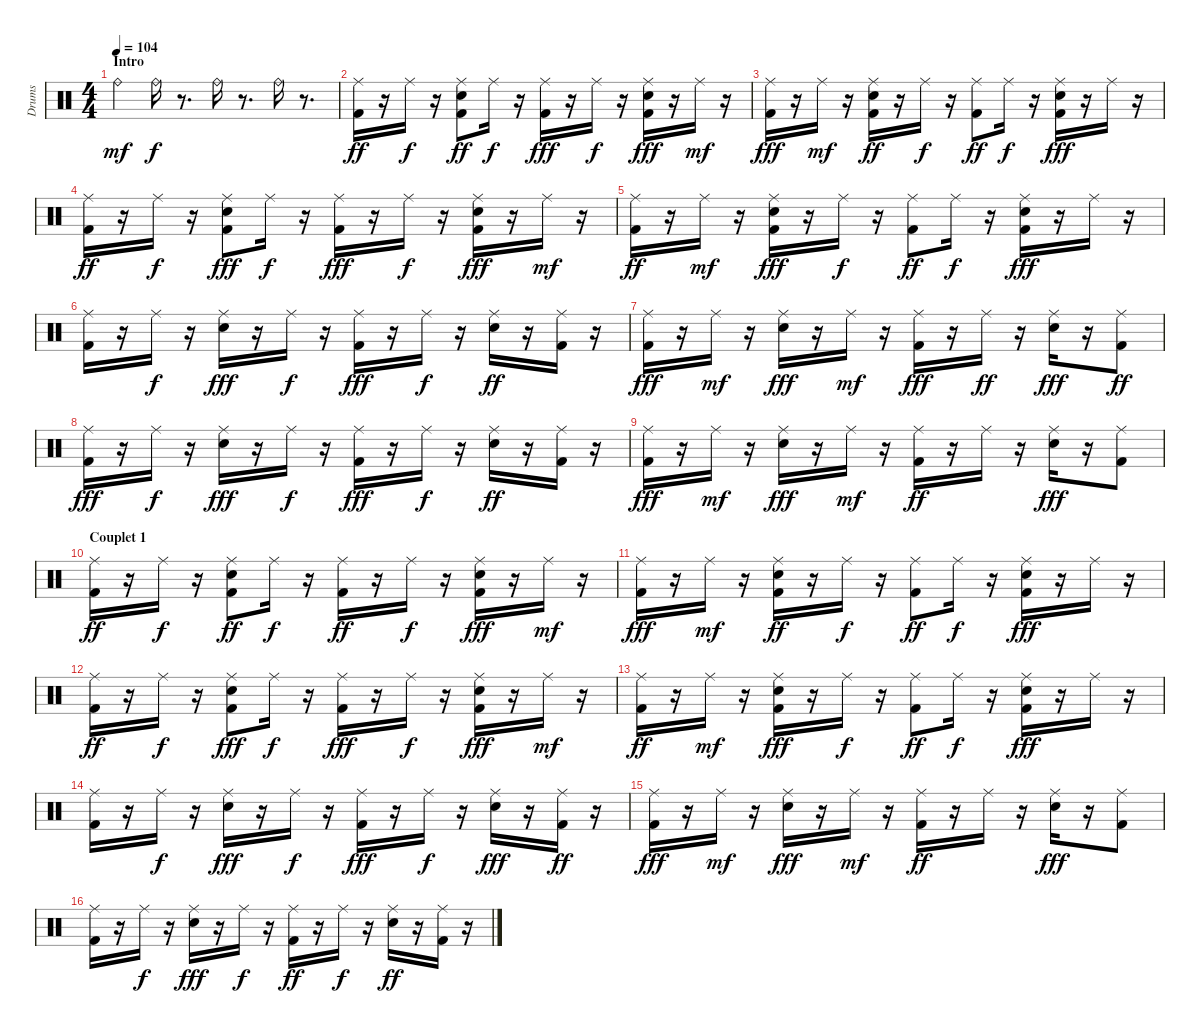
\track ("Drums" "Drums") {instrument percussion}
\staff {score}
\articulation defaults
\ts (4 4)
\section ("" "Intro")
\tempo 104
\clef neutral
\ks c "Ride (bell)".4{dy mf} "Ride (bell)".16{dy f}
r.8{d} "Ride (bell)".16 r.8{d} "Ride (bell)".16 r.8{d} |
("Kick (hit) 2" "Ride (middle)").16{dy ff} r.16 "Ride (middle)".16{dy f} r.16 ("Snare (hit) 2" "Kick (hit) 2" "Ride (middle)").8{dy ff} "Ride (middle)".16{dy f} r.16 ("Ride (middle)" "Kick (hit) 2").16{dy fff} r.16 "Ride (middle)".16{dy f} r.16 ("Snare (hit) 2" "Ride (middle)" "Kick (hit) 2").16{dy fff} r.16 "Ride (middle)".16{dy mf} r.16 |
("Ride (middle)" "Kick (hit) 2").16{dy fff} r.16 "Ride (middle)".16{dy mf} r.16 ("Kick (hit) 2" "Snare (hit) 2" "Ride (middle)").16{dy ff} r.16 "Ride (middle)".16{dy f} r.16 ("Kick (hit) 2" "Ride (middle)").8{dy ff} "Ride (middle)".16{dy f} r.16 ("Kick (hit) 2" "Snare (hit) 2" "Ride (middle)").16{dy fff} r.16 "Ride (middle)".16 r.16 |
("Kick (hit) 2" "Ride (middle)").16{dy ff} r.16 "Ride (middle)".16{dy f} r.16 ("Ride (middle)" "Kick (hit) 2" "Snare (hit) 2").8{dy fff} "Ride (middle)".16{dy f} r.16 ("Ride (middle)" "Kick (hit) 2").16{dy fff} r.16 "Ride (middle)".16{dy f} r.16 ("Snare (hit) 2" "Kick (hit) 2" "Ride (middle)").16{dy fff} r.16 "Ride (middle)".16{dy mf} r.16 |
("Kick (hit) 2" "Ride (middle)").16{dy ff} r.16 "Ride (middle)".16{dy mf} r.16 ("Snare (hit) 2" "Ride (middle)" "Kick (hit) 2").16{dy fff} r.16 "Ride (middle)".16{dy f} r.16 ("Kick (hit) 2" "Ride (middle)").8{dy ff} "Ride (middle)".16{dy f} r.16 ("Snare (hit) 2" "Ride (middle)" "Kick (hit) 2").16{dy fff} r.16 "Ride (middle)".16 r.16 |
("Kick (hit) 2" "Ride (middle)").16 r.16 "Ride (middle)".16{dy f} r.16 ("Snare (hit) 2" "Ride (middle)").16{dy fff} r.16 "Ride (middle)".16{dy f} r.16 ("Ride (middle)" "Kick (hit) 2").16{dy fff} r.16 "Ride (middle)".16{dy f} r.16 ("Snare (hit) 2" "Ride (middle)").16{dy ff} r.16 ("Ride (middle)" "Kick (hit) 2").16 r.16 |
("Ride (middle)" "Kick (hit) 2").16{dy fff} r.16 "Ride (middle)".16{dy mf} r.16 ("Snare (hit) 2" "Ride (middle)").16{dy fff} r.16 "Ride (middle)".16{dy mf} r.16 ("Ride (middle)" "Kick (hit) 2").16{dy fff} r.16 "Ride (middle)".16{dy ff} r.16 ("Ride (middle)" "Snare (hit) 2").16{dy fff} r.16 ("Ride (middle)" "Kick (hit) 2").8{dy ff} |
("Kick (hit) 2" "Ride (middle)").16{dy fff} r.16 "Ride (middle)".16{dy f} r.16 ("Ride (middle)" "Snare (hit) 2").16{dy fff} r.16 "Ride (middle)".16{dy f} r.16 ("Ride (middle)" "Kick (hit) 2").16{dy fff} r.16 "Ride (middle)".16{dy f} r.16 ("Snare (hit) 2" "Ride (middle)").16{dy ff} r.16 ("Kick (hit) 2" "Ride (middle)").16 r.16 |
("Kick (hit) 2" "Ride (middle)").16{dy fff} r.16 "Ride (middle)".16{dy mf} r.16 ("Ride (middle)" "Snare (hit) 2").16{dy fff} r.16 "Ride (middle)".16{dy mf} r.16 ("Kick (hit) 2" "Ride (middle)").16{dy ff} r.16 "Ride (middle)".16 r.16 ("Ride (middle)" "Snare (hit) 2").16{dy fff} r.16 ("Kick (hit) 2" "Ride (middle)").8 |
\section ("" "Couplet 1")
("Kick (hit) 2" "Ride (middle)").16{dy ff} r.16 "Ride (middle)".16{dy f} r.16 ("Kick (hit) 2" "Snare (hit) 2" "Ride (middle)").8{dy ff} "Ride (middle)".16{dy f} r.16 ("Kick (hit) 2" "Ride (middle)").16{dy ff} r.16 "Ride (middle)".16{dy f} r.16 ("Snare (hit) 2" "Ride (middle)" "Kick (hit) 2").16{dy fff} r.16 "Ride (middle)".16{dy mf} r.16 |
("Ride (middle)" "Kick (hit) 2").16{dy fff} r.16 "Ride (middle)".16{dy mf} r.16 ("Snare (hit) 2" "Kick (hit) 2" "Ride (middle)").16{dy ff} r.16 "Ride (middle)".16{dy f} r.16 ("Kick (hit) 2" "Ride (middle)").8{dy ff} "Ride (middle)".16{dy f} r.16 ("Kick (hit) 2" "Ride (middle)" "Snare (hit) 2").16{dy fff} r.16 "Ride (middle)".16 r.16 |
("Ride (middle)" "Kick (hit) 2").16{dy ff} r.16 "Ride (middle)".16{dy f} r.16 ("Ride (middle)" "Snare (hit) 2" "Kick (hit) 2").8{dy fff} "Ride (middle)".16{dy f} r.16 ("Ride (middle)" "Kick (hit) 2").16{dy fff} r.16 "Ride (middle)".16{dy f} r.16 ("Ride (middle)" "Snare (hit) 2" "Kick (hit) 2").16{dy fff} r.16 "Ride (middle)".16{dy mf} r.16 |
("Kick (hit) 2" "Ride (middle)").16{dy ff} r.16 "Ride (middle)".16{dy mf} r.16 ("Ride (middle)" "Kick (hit) 2" "Snare (hit) 2").16{dy fff} r.16 "Ride (middle)".16{dy f} r.16 ("Kick (hit) 2" "Ride (middle)").8{dy ff} "Ride (middle)".16{dy f} r.16 ("Ride (middle)" "Snare (hit) 2" "Kick (hit) 2").16{dy fff} r.16 "Ride (middle)".16 r.16 |
("Ride (middle)" "Kick (hit) 2").16 r.16 "Ride (middle)".16{dy f} r.16 ("Ride (middle)" "Snare (hit) 2").16{dy fff} r.16 "Ride (middle)".16{dy f} r.16 ("Ride (middle)" "Kick (hit) 2").16{dy fff} r.16 "Ride (middle)".16{dy f} r.16 ("Ride (middle)" "Snare (hit) 2").16{dy fff} r.16 ("Kick (hit) 2" "Ride (middle)").16{dy ff} r.16 |
("Ride (middle)" "Kick (hit) 2").16{dy fff} r.16 "Ride (middle)".16{dy mf} r.16 ("Ride (middle)" "Snare (hit) 2").16{dy fff} r.16 "Ride (middle)".16{dy mf} r.16 ("Kick (hit) 2" "Ride (middle)").16{dy ff} r.16 "Ride (middle)".16 r.16 ("Ride (middle)" "Snare (hit) 2").16{dy fff} r.16 ("Kick (hit) 2" "Ride (middle)").8 |
("Kick (hit) 2" "Ride (middle)").16 r.16 "Ride (middle)".16{dy f} r.16 ("Snare (hit) 2" "Ride (middle)").16{dy fff} r.16 "Ride (middle)".16{dy f} r.16 ("Kick (hit) 2" "Ride (middle)").16{dy ff} r.16 "Ride (middle)".16{dy f} r.16 ("Snare (hit) 2" "Ride (middle)").16{dy ff} r.16 ("Kick (hit) 2" "Ride (middle)").16 r.16
